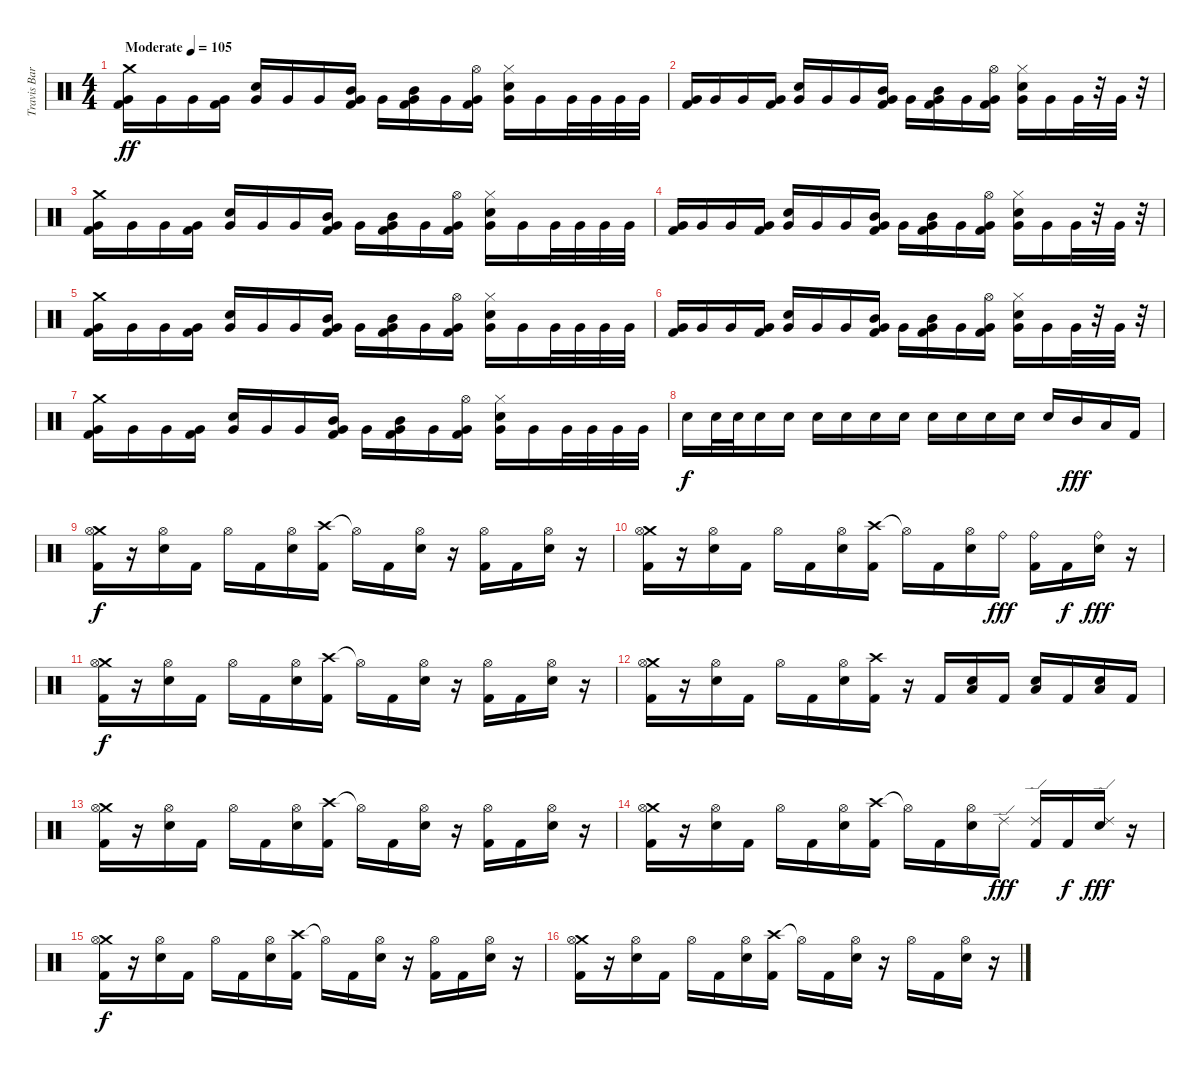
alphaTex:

\track ("Travis Barker" "Travis Bar") {instrument percussion}
\staff {score}
\articulation defaults
\ts (4 4)
\tempo (105 "Moderate")
\clef neutral
\ks c
("Crash medium (hit)" "Very Low Tom (hit)" "Kick (hit) 2").16{dy ff} "Very Low Tom (hit)".16 "Very Low Tom (hit)".16 ("Very Low Tom (hit)" "Kick (hit) 2").16 ("Electric Snare (hit)" "Very Low Tom (hit)").16 "Very Low Tom (hit)".16 "Very Low Tom (hit)".16 ("Mid Tom (hit)" "Very Low Tom (hit)" "Kick (hit) 2").16 "Very Low Tom (hit)".16 ("Mid Tom (hit)" "Very Low Tom (hit)" "Kick (hit) 2").16 "Very Low Tom (hit)".16 ("Hi-Hat (open)" "Very Low Tom (hit)" "Kick (hit) 2").16 ("Hi-Hat (closed)" "Electric Snare (hit)" "Very Low Tom (hit)").16 "Very Low Tom (hit)".16 "Very Low Tom (hit)".32 "Very Low Tom (hit)".32 "Very Low Tom (hit)".32 "Very Low Tom (hit)".32 |
("Very Low Tom (hit)" "Kick (hit) 2").16 "Very Low Tom (hit)".16 "Very Low Tom (hit)".16 ("Very Low Tom (hit)" "Kick (hit) 2").16 ("Electric Snare (hit)" "Very Low Tom (hit)").16 "Very Low Tom (hit)".16 "Very Low Tom (hit)".16 ("Mid Tom (hit)" "Very Low Tom (hit)" "Kick (hit) 2").16 "Very Low Tom (hit)".16 ("Mid Tom (hit)" "Very Low Tom (hit)" "Kick (hit) 2").16 "Very Low Tom (hit)".16 ("Hi-Hat (open)" "Very Low Tom (hit)" "Kick (hit) 2").16 ("Hi-Hat (closed)" "Electric Snare (hit)" "Very Low Tom (hit)").16 "Very Low Tom (hit)".16 "Very Low Tom (hit)".32 r.32 "Very Low Tom (hit)".32 r.32 |
("Crash medium (hit)" "Very Low Tom (hit)" "Kick (hit) 2").16 "Very Low Tom (hit)".16 "Very Low Tom (hit)".16 ("Very Low Tom (hit)" "Kick (hit) 2").16 ("Electric Snare (hit)" "Very Low Tom (hit)").16 "Very Low Tom (hit)".16 "Very Low Tom (hit)".16 ("Mid Tom (hit)" "Very Low Tom (hit)" "Kick (hit) 2").16 "Very Low Tom (hit)".16 ("Mid Tom (hit)" "Very Low Tom (hit)" "Kick (hit) 2").16 "Very Low Tom (hit)".16 ("Hi-Hat (open)" "Very Low Tom (hit)" "Kick (hit) 2").16 ("Hi-Hat (closed)" "Electric Snare (hit)" "Very Low Tom (hit)").16 "Very Low Tom (hit)".16 "Very Low Tom (hit)".32 "Very Low Tom (hit)".32 "Very Low Tom (hit)".32 "Very Low Tom (hit)".32 |
("Very Low Tom (hit)" "Kick (hit) 2").16 "Very Low Tom (hit)".16 "Very Low Tom (hit)".16 ("Very Low Tom (hit)" "Kick (hit) 2").16 ("Electric Snare (hit)" "Very Low Tom (hit)").16 "Very Low Tom (hit)".16 "Very Low Tom (hit)".16 ("Mid Tom (hit)" "Very Low Tom (hit)" "Kick (hit) 2").16 "Very Low Tom (hit)".16 ("Mid Tom (hit)" "Very Low Tom (hit)" "Kick (hit) 2").16 "Very Low Tom (hit)".16 ("Hi-Hat (open)" "Very Low Tom (hit)" "Kick (hit) 2").16 ("Hi-Hat (closed)" "Electric Snare (hit)" "Very Low Tom (hit)").16 "Very Low Tom (hit)".16 "Very Low Tom (hit)".32 r.32 "Very Low Tom (hit)".32 r.32 |
("Crash medium (hit)" "Very Low Tom (hit)" "Kick (hit) 2").16 "Very Low Tom (hit)".16 "Very Low Tom (hit)".16 ("Very Low Tom (hit)" "Kick (hit) 2").16 ("Electric Snare (hit)" "Very Low Tom (hit)").16 "Very Low Tom (hit)".16 "Very Low Tom (hit)".16 ("Mid Tom (hit)" "Very Low Tom (hit)" "Kick (hit) 2").16 "Very Low Tom (hit)".16 ("Mid Tom (hit)" "Very Low Tom (hit)" "Kick (hit) 2").16 "Very Low Tom (hit)".16 ("Hi-Hat (open)" "Very Low Tom (hit)" "Kick (hit) 2").16 ("Hi-Hat (closed)" "Electric Snare (hit)" "Very Low Tom (hit)").16 "Very Low Tom (hit)".16 "Very Low Tom (hit)".32 "Very Low Tom (hit)".32 "Very Low Tom (hit)".32 "Very Low Tom (hit)".32 |
("Very Low Tom (hit)" "Kick (hit) 2").16 "Very Low Tom (hit)".16 "Very Low Tom (hit)".16 ("Very Low Tom (hit)" "Kick (hit) 2").16 ("Electric Snare (hit)" "Very Low Tom (hit)").16 "Very Low Tom (hit)".16 "Very Low Tom (hit)".16 ("Mid Tom (hit)" "Very Low Tom (hit)" "Kick (hit) 2").16 "Very Low Tom (hit)".16 ("Mid Tom (hit)" "Very Low Tom (hit)" "Kick (hit) 2").16 "Very Low Tom (hit)".16 ("Hi-Hat (open)" "Very Low Tom (hit)" "Kick (hit) 2").16 ("Hi-Hat (closed)" "Electric Snare (hit)" "Very Low Tom (hit)").16 "Very Low Tom (hit)".16 "Very Low Tom (hit)".32 r.32 "Very Low Tom (hit)".32 r.32 |
("Crash medium (hit)" "Very Low Tom (hit)" "Kick (hit) 2").16 "Very Low Tom (hit)".16 "Very Low Tom (hit)".16 ("Very Low Tom (hit)" "Kick (hit) 2").16 ("Electric Snare (hit)" "Very Low Tom (hit)").16 "Very Low Tom (hit)".16 "Very Low Tom (hit)".16 ("Mid Tom (hit)" "Very Low Tom (hit)" "Kick (hit) 2").16 "Very Low Tom (hit)".16 ("Mid Tom (hit)" "Very Low Tom (hit)" "Kick (hit) 2").16 "Very Low Tom (hit)".16 ("Hi-Hat (open)" "Very Low Tom (hit)" "Kick (hit) 2").16 ("Hi-Hat (closed)" "Electric Snare (hit)" "Very Low Tom (hit)").16 "Very Low Tom (hit)".16 "Very Low Tom (hit)".32 "Very Low Tom (hit)".32 "Very Low Tom (hit)".32 "Very Low Tom (hit)".32 |
"Electric Snare (hit)".16{dy f} "Electric Snare (hit)".32 "Electric Snare (hit)".32 "Electric Snare (hit)".16 "Electric Snare (hit)".16 "Electric Snare (hit)".16 "Electric Snare (hit)".16 "Electric Snare (hit)".16 "Electric Snare (hit)".16 "Electric Snare (hit)".16 "Electric Snare (hit)".16 "Electric Snare (hit)".16 "Electric Snare (hit)".16 "Electric Snare (hit)".16 "Mid Tom (hit)".16{dy fff} "Low Tom (hit)".16 "Kick (hit) 2".16 |
("Crash medium (hit)" "Hi-Hat (open)" "Kick (hit) 2").16{dy f} r.16 ("Hi-Hat (open)" "Electric Snare (hit)").16 "Kick (hit) 2".16 "Hi-Hat (open)".16 "Kick (hit) 2".16 ("Hi-Hat (open)" "Electric Snare (hit)").16 ("Crash high (hit)" "Kick (hit) 2").16 "Hi-Hat (open)"{t}.16 "Kick (hit) 2".16 ("Hi-Hat (open)" "Electric Snare (hit)").16 r.16 ("Hi-Hat (open)" "Kick (hit) 2").16 "Kick (hit) 2".16 ("Hi-Hat (open)" "Electric Snare (hit)").16 r.16 |
("Crash medium (hit)" "Hi-Hat (open)" "Kick (hit) 2").16 r.16 ("Hi-Hat (open)" "Electric Snare (hit)").16 "Kick (hit) 2".16 "Hi-Hat (open)".16 "Kick (hit) 2".16 ("Hi-Hat (open)" "Electric Snare (hit)").16 ("Crash high (hit)" "Kick (hit) 2").16 "Hi-Hat (open)"{t}.16 "Kick (hit) 2".16 ("Hi-Hat (open)" "Electric Snare (hit)").16 "Ride (bell)".16{dy fff} ("Ride (bell)" "Kick (hit) 2").16 "Kick (hit) 2".16{dy f} ("Ride (bell)" "Electric Snare (hit)").16{dy fff} r.16 |
("Crash medium (hit)" "Hi-Hat (open)" "Kick (hit) 2").16{dy f} r.16 ("Hi-Hat (open)" "Electric Snare (hit)").16 "Kick (hit) 2".16 "Hi-Hat (open)".16 "Kick (hit) 2".16 ("Hi-Hat (open)" "Electric Snare (hit)").16 ("Crash high (hit)" "Kick (hit) 2").16 "Hi-Hat (open)"{t}.16 "Kick (hit) 2".16 ("Hi-Hat (open)" "Electric Snare (hit)").16 r.16 ("Hi-Hat (open)" "Kick (hit) 2").16 "Kick (hit) 2".16 ("Hi-Hat (open)" "Electric Snare (hit)").16 r.16 |
("Crash medium (hit)" "Hi-Hat (open)" "Kick (hit) 2").16 r.16 ("Hi-Hat (open)" "Electric Snare (hit)").16 "Kick (hit) 2".16 "Hi-Hat (open)".16 "Kick (hit) 2".16 ("Hi-Hat (open)" "Electric Snare (hit)").16 ("Crash high (hit)" "Kick (hit) 2").16 r.16 "Kick (hit) 2".16 ("Low Tom (hit)" "Electric Snare (hit)").16 "Kick (hit) 2".16 ("Low Tom (hit)" "Electric Snare (hit)").16 "Kick (hit) 2".16 ("Low Tom (hit)" "Electric Snare (hit)").16 "Kick (hit) 2".16 |
("Crash medium (hit)" "Hi-Hat (open)" "Kick (hit) 2").16 r.16 ("Hi-Hat (open)" "Electric Snare (hit)").16 "Kick (hit) 2".16 "Hi-Hat (open)".16 "Kick (hit) 2".16 ("Hi-Hat (open)" "Electric Snare (hit)").16 ("Crash high (hit)" "Kick (hit) 2").16 "Hi-Hat (open)"{t}.16 "Kick (hit) 2".16 ("Hi-Hat (open)" "Electric Snare (hit)").16 r.16 ("Hi-Hat (open)" "Kick (hit) 2").16 "Kick (hit) 2".16 ("Hi-Hat (open)" "Electric Snare (hit)").16 r.16 |
("Crash medium (hit)" "Hi-Hat (open)" "Kick (hit) 2").16 r.16 ("Hi-Hat (open)" "Electric Snare (hit)").16 "Kick (hit) 2".16 "Hi-Hat (open)".16 "Kick (hit) 2".16 ("Hi-Hat (open)" "Electric Snare (hit)").16 ("Crash high (hit)" "Kick (hit) 2").16 "Hi-Hat (open)"{t}.16 "Kick (hit) 2".16 ("Hi-Hat (open)" "Electric Snare (hit)").16 "Ride (edge) 2".16{dy fff} ("Ride (edge) 2" "Kick (hit) 2").16 "Kick (hit) 2".16{dy f} ("Ride (edge) 2" "Electric Snare (hit)").16{dy fff} r.16 |
("Crash medium (hit)" "Hi-Hat (open)" "Kick (hit) 2").16{dy f} r.16 ("Hi-Hat (open)" "Electric Snare (hit)").16 "Kick (hit) 2".16 "Hi-Hat (open)".16 "Kick (hit) 2".16 ("Hi-Hat (open)" "Electric Snare (hit)").16 ("Crash high (hit)" "Kick (hit) 2").16 "Hi-Hat (open)"{t}.16 "Kick (hit) 2".16 ("Hi-Hat (open)" "Electric Snare (hit)").16 r.16 ("Hi-Hat (open)" "Kick (hit) 2").16 "Kick (hit) 2".16 ("Hi-Hat (open)" "Electric Snare (hit)").16 r.16 |
("Crash medium (hit)" "Hi-Hat (open)" "Kick (hit) 2").16 r.16 ("Hi-Hat (open)" "Electric Snare (hit)").16 "Kick (hit) 2".16 "Hi-Hat (open)".16 "Kick (hit) 2".16 ("Hi-Hat (open)" "Electric Snare (hit)").16 ("Crash high (hit)" "Kick (hit) 2").16 "Hi-Hat (open)"{t}.16 "Kick (hit) 2".16 ("Hi-Hat (open)" "Electric Snare (hit)").16 r.16 "Hi-Hat (open)".16 "Kick (hit) 2".16 ("Hi-Hat (open)" "Electric Snare (hit)").16 r.16
